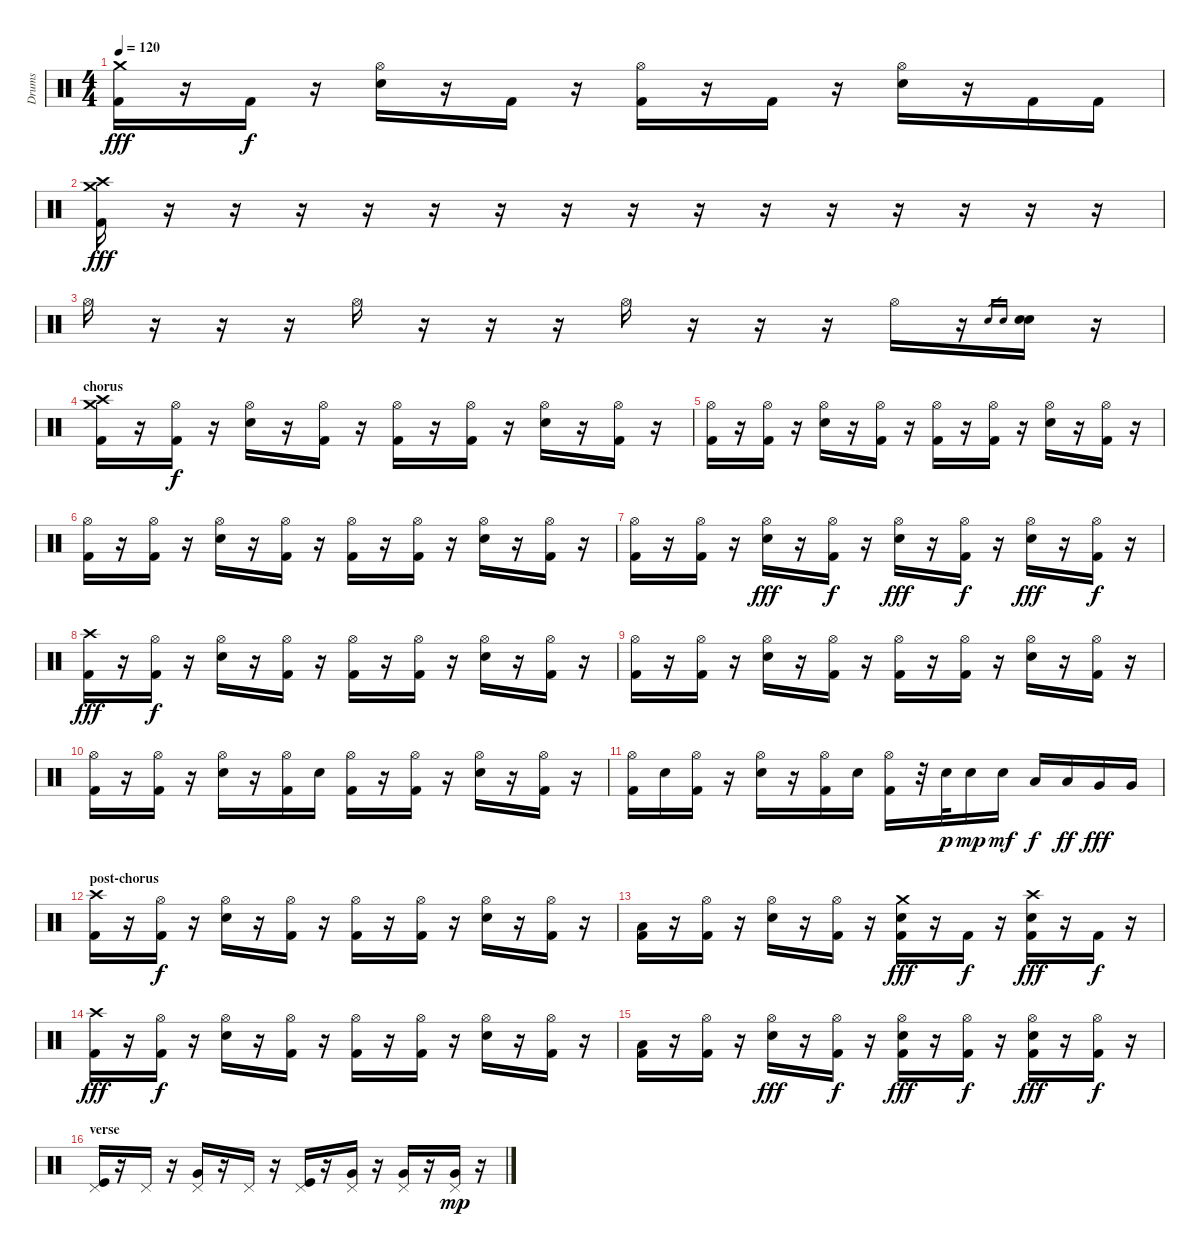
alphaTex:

\track ("Drums" "Drums") {instrument percussion}
\staff {score}
\articulation defaults
\ts (4 4)
\tempo 120
\clef neutral
\ks c
("Crash medium (hit)" "Kick (hit) 2").16{dy fff} r.16 "Kick (hit) 2".16{dy f} r.16 ("Hi-Hat (open)" "Electric Snare (hit)").16 r.16 "Kick (hit) 2".16 r.16 ("Hi-Hat (open)" "Kick (hit) 2").16 r.16 "Kick (hit) 2".16 r.16 ("Hi-Hat (open)" "Electric Snare (hit)").16 r.16 "Kick (hit) 2".16 "Kick (hit) 2".16 |
("Crash high (hit)" "Crash medium (hit)" "Kick (hit) 2").16{dy fff} r.16 r.16 r.16 r.16 r.16 r.16 r.16 r.16 r.16 r.16 r.16 r.16 r.16 r.16 r.16 |
"Hi-Hat (open)".16 r.16 r.16 r.16 "Hi-Hat (open)".16 r.16 r.16 r.16 "Hi-Hat (open)".16 r.16 r.16 r.16 "Hi-Hat (open)".16 r.16 "Electric Snare (hit)".16{gr} "Electric Snare (hit)".16{gr} ("Electric Snare (hit)" "Electric Snare (hit)").16 r.16 |
\section ("" "chorus")
("Crash high (hit)" "Crash medium (hit)" "Kick (hit) 2").16 r.16 ("Hi-Hat (open)" "Kick (hit) 2").16{dy f} r.16 ("Hi-Hat (open)" "Electric Snare (hit)").16 r.16 ("Hi-Hat (open)" "Kick (hit) 2").16 r.16 ("Hi-Hat (open)" "Kick (hit) 2").16 r.16 ("Hi-Hat (open)" "Kick (hit) 2").16 r.16 ("Hi-Hat (open)" "Electric Snare (hit)").16 r.16 ("Hi-Hat (open)" "Kick (hit) 2").16 r.16 |
("Hi-Hat (open)" "Kick (hit) 2").16 r.16 ("Hi-Hat (open)" "Kick (hit) 2").16 r.16 ("Hi-Hat (open)" "Electric Snare (hit)").16 r.16 ("Hi-Hat (open)" "Kick (hit) 2").16 r.16 ("Hi-Hat (open)" "Kick (hit) 2").16 r.16 ("Hi-Hat (open)" "Kick (hit) 2").16 r.16 ("Hi-Hat (open)" "Electric Snare (hit)").16 r.16 ("Hi-Hat (open)" "Kick (hit) 2").16 r.16 |
("Hi-Hat (open)" "Kick (hit) 2").16 r.16 ("Hi-Hat (open)" "Kick (hit) 2").16 r.16 ("Hi-Hat (open)" "Electric Snare (hit)").16 r.16 ("Hi-Hat (open)" "Kick (hit) 2").16 r.16 ("Hi-Hat (open)" "Kick (hit) 2").16 r.16 ("Hi-Hat (open)" "Kick (hit) 2").16 r.16 ("Hi-Hat (open)" "Electric Snare (hit)").16 r.16 ("Hi-Hat (open)" "Kick (hit) 2").16 r.16 |
("Hi-Hat (open)" "Kick (hit) 2").16 r.16 ("Hi-Hat (open)" "Kick (hit) 2").16 r.16 ("Hi-Hat (open)" "Electric Snare (hit)").16{dy fff} r.16 ("Hi-Hat (open)" "Kick (hit) 2").16{dy f} r.16 ("Hi-Hat (open)" "Electric Snare (hit)").16{dy fff} r.16 ("Hi-Hat (open)" "Kick (hit) 2").16{dy f} r.16 ("Hi-Hat (open)" "Electric Snare (hit)").16{dy fff} r.16 ("Hi-Hat (open)" "Kick (hit) 2").16{dy f} r.16 |
("Crash high (hit)" "Kick (hit) 2").16{dy fff} r.16 ("Hi-Hat (open)" "Kick (hit) 2").16{dy f} r.16 ("Hi-Hat (open)" "Electric Snare (hit)").16 r.16 ("Hi-Hat (open)" "Kick (hit) 2").16 r.16 ("Hi-Hat (open)" "Kick (hit) 2").16 r.16 ("Hi-Hat (open)" "Kick (hit) 2").16 r.16 ("Hi-Hat (open)" "Electric Snare (hit)").16 r.16 ("Hi-Hat (open)" "Kick (hit) 2").16 r.16 |
("Hi-Hat (open)" "Kick (hit) 2").16 r.16 ("Hi-Hat (open)" "Kick (hit) 2").16 r.16 ("Hi-Hat (open)" "Electric Snare (hit)").16 r.16 ("Hi-Hat (open)" "Kick (hit) 2").16 r.16 ("Hi-Hat (open)" "Kick (hit) 2").16 r.16 ("Hi-Hat (open)" "Kick (hit) 2").16 r.16 ("Hi-Hat (open)" "Electric Snare (hit)").16 r.16 ("Hi-Hat (open)" "Kick (hit) 2").16 r.16 |
("Hi-Hat (open)" "Kick (hit) 2").16 r.16 ("Hi-Hat (open)" "Kick (hit) 2").16 r.16 ("Hi-Hat (open)" "Electric Snare (hit)").16 r.16 ("Hi-Hat (open)" "Kick (hit) 2").16 "Electric Snare (hit)".16 ("Hi-Hat (open)" "Kick (hit) 2").16 r.16 ("Hi-Hat (open)" "Kick (hit) 2").16 r.16 ("Hi-Hat (open)" "Electric Snare (hit)").16 r.16 ("Hi-Hat (open)" "Kick (hit) 2").16 r.16 |
("Hi-Hat (open)" "Kick (hit) 2").16 "Electric Snare (hit)".16 ("Hi-Hat (open)" "Kick (hit) 2").16 r.16 ("Hi-Hat (open)" "Electric Snare (hit)").16 r.16 ("Hi-Hat (open)" "Kick (hit) 2").16 "Electric Snare (hit)".16 ("Hi-Hat (open)" "Kick (hit) 2").16 r.32 "Electric Snare (hit)".32{dy p} "Electric Snare (hit)".16{dy mp} "Electric Snare (hit)".16{dy mf} "Low Tom (hit)".16{dy f} "Low Tom (hit)".16{dy ff} "Very Low Tom (hit)".16{dy fff} "Very Low Tom (hit)".16 |
\section ("" "post-chorus")
("Crash high (hit)" "Kick (hit) 2").16 r.16 ("Hi-Hat (open)" "Kick (hit) 2").16{dy f} r.16 ("Hi-Hat (open)" "Electric Snare (hit)").16 r.16 ("Hi-Hat (open)" "Kick (hit) 2").16 r.16 ("Hi-Hat (open)" "Kick (hit) 2").16 r.16 ("Hi-Hat (open)" "Kick (hit) 2").16 r.16 ("Hi-Hat (open)" "Electric Snare (hit)").16 r.16 ("Hi-Hat (open)" "Kick (hit) 2").16 r.16 |
("Low Tom (hit)" "Kick (hit) 2").16 r.16 ("Hi-Hat (open)" "Kick (hit) 2").16 r.16 ("Hi-Hat (open)" "Electric Snare (hit)").16 r.16 ("Hi-Hat (open)" "Kick (hit) 2").16 r.16 ("Crash medium (hit)" "Electric Snare (hit)" "Kick (hit) 2").16{dy fff} r.16 "Kick (hit) 2".16{dy f} r.16 ("Crash high (hit)" "Electric Snare (hit)" "Kick (hit) 2").16{dy fff} r.16 "Kick (hit) 2".16{dy f} r.16 |
("Crash high (hit)" "Kick (hit) 2").16{dy fff} r.16 ("Hi-Hat (open)" "Kick (hit) 2").16{dy f} r.16 ("Hi-Hat (open)" "Electric Snare (hit)").16 r.16 ("Hi-Hat (open)" "Kick (hit) 2").16 r.16 ("Hi-Hat (open)" "Kick (hit) 2").16 r.16 ("Hi-Hat (open)" "Kick (hit) 2").16 r.16 ("Hi-Hat (open)" "Electric Snare (hit)").16 r.16 ("Hi-Hat (open)" "Kick (hit) 2").16 r.16 |
("Low Tom (hit)" "Kick (hit) 2").16 r.16 ("Hi-Hat (open)" "Kick (hit) 2").16 r.16 ("Hi-Hat (open)" "Electric Snare (hit)").16{dy fff} r.16 ("Hi-Hat (open)" "Kick (hit) 2").16{dy f} r.16 ("Hi-Hat (open)" "Electric Snare (hit)" "Kick (hit) 2").16{dy fff} r.16 ("Hi-Hat (open)" "Kick (hit) 2").16{dy f} r.16 ("Hi-Hat (open)" "Electric Snare (hit)" "Kick (hit) 2").16{dy fff} r.16 ("Hi-Hat (open)" "Kick (hit) 2").16{dy f} r.16 |
\section ("" "verse")
("Pedal Hi-Hat (hit)" "Kick (hit)").16{volume 12} r.16 "Pedal Hi-Hat (hit)".16 r.16 ("Pedal Hi-Hat (hit)" "Very Low Tom (hit)").16 r.16 "Pedal Hi-Hat (hit)".16 r.16 ("Pedal Hi-Hat (hit)" "Kick (hit)").16 r.16 ("Pedal Hi-Hat (hit)" "Very Low Tom (hit)").16 r.16 ("Pedal Hi-Hat (hit)" "Very Low Tom (hit)").16 r.16 ("Pedal Hi-Hat (hit)" "Very Low Tom (hit)").16{dy mp} r.16
